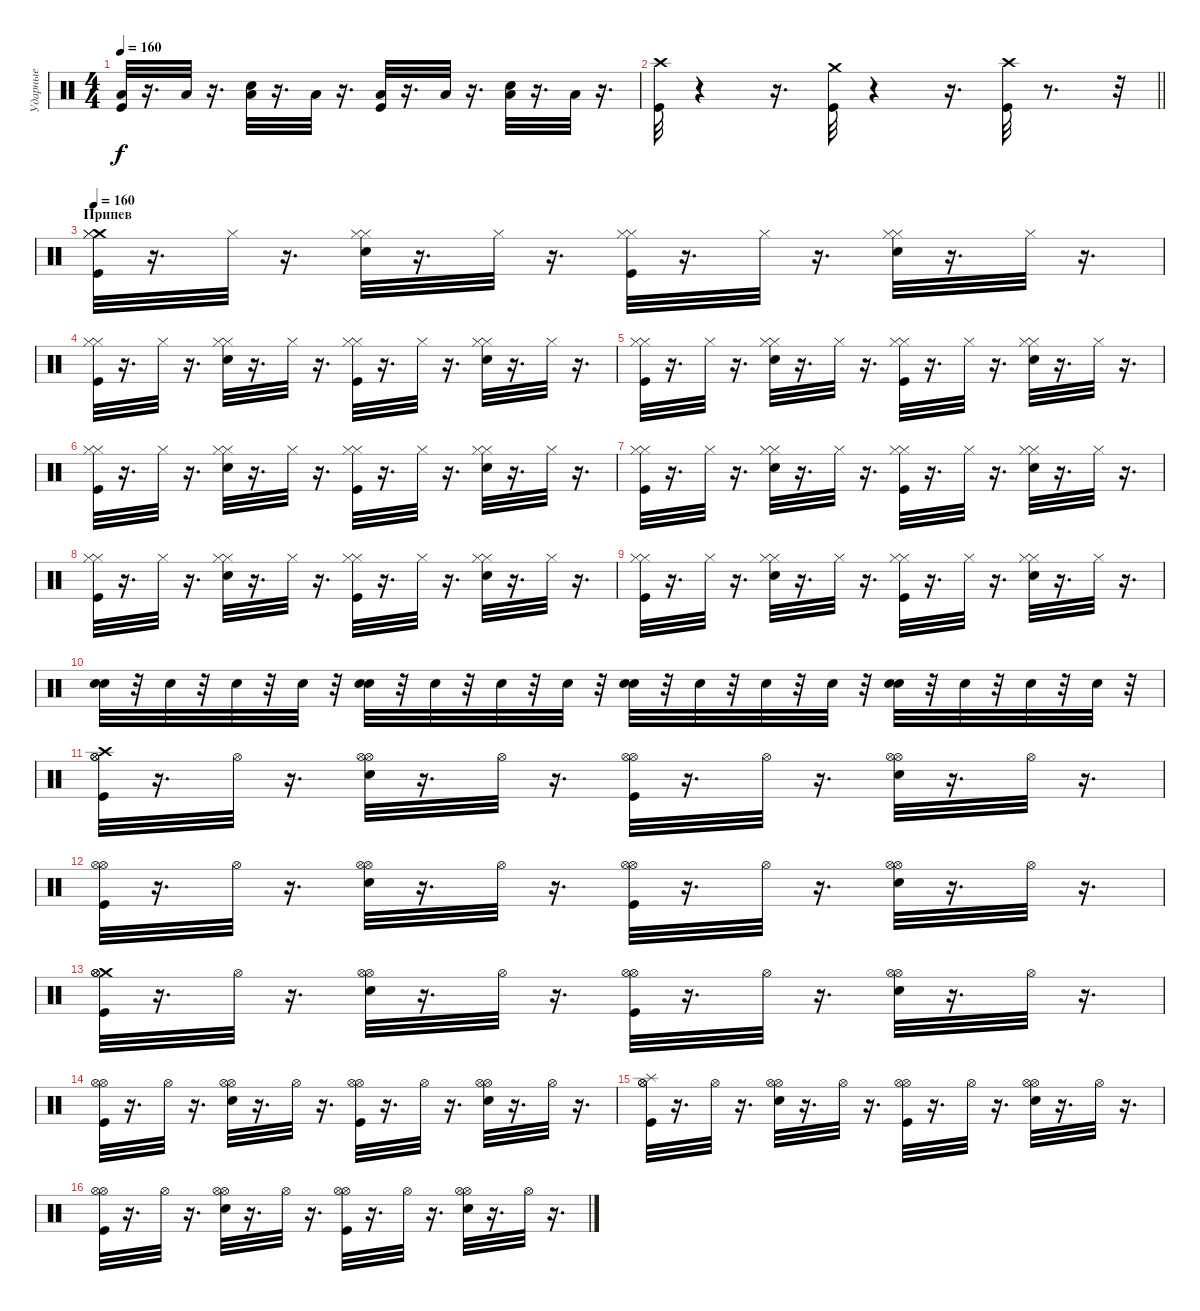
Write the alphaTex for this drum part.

\track ("Ударные" "Ударные") {instrument percussion}
\staff {score}
\articulation defaults
\ts (4 4)
\tempo 160
\clef neutral
\ks c
("Kick (hit)" "Low Floor Tom (hit)").32{dy f} r.16{d} "Low Floor Tom (hit)".32 r.16{d} ("Low Floor Tom (hit)" "Snare (hit) 2").32 r.16{d} "Low Floor Tom (hit)".32 r.16{d} ("Low Floor Tom (hit)" "Kick (hit)").32 r.16{d} "Low Floor Tom (hit)".32 r.16{d} ("Snare (hit) 2" "Low Floor Tom (hit)").32 r.16{d} "Low Floor Tom (hit)".32 r.16{d} |
\barLineRight lightlight
("Crash high (hit)" "Kick (hit)").32 r.4 r.16{d} ("Kick (hit)" "Crash medium (hit)").32 r.4 r.16{d} ("Crash high (hit)" "Kick (hit)").32 r.8{d} r.32 |
\section ("" "Припев")
\tempo 160
("Crash medium (hit)" "Hi-Hat (closed)" "Hi-Hat (closed)" "Kick (hit)").32 r.16{d} "Hi-Hat (closed)".32 r.16{d} ("Hi-Hat (closed)" "Hi-Hat (closed)" "Snare (hit) 2").32 r.16{d} "Hi-Hat (closed)".32 r.16{d} ("Hi-Hat (closed)" "Hi-Hat (closed)" "Kick (hit)").32 r.16{d} "Hi-Hat (closed)".32 r.16{d} ("Hi-Hat (closed)" "Hi-Hat (closed)" "Snare (hit) 2").32 r.16{d} "Hi-Hat (closed)".32 r.16{d} |
("Hi-Hat (closed)" "Hi-Hat (closed)" "Kick (hit)").32 r.16{d} "Hi-Hat (closed)".32 r.16{d} ("Hi-Hat (closed)" "Hi-Hat (closed)" "Snare (hit) 2").32 r.16{d} "Hi-Hat (closed)".32 r.16{d} ("Hi-Hat (closed)" "Hi-Hat (closed)" "Kick (hit)").32 r.16{d} "Hi-Hat (closed)".32 r.16{d} ("Hi-Hat (closed)" "Hi-Hat (closed)" "Snare (hit) 2").32 r.16{d} "Hi-Hat (closed)".32 r.16{d} |
("Hi-Hat (closed)" "Hi-Hat (closed)" "Kick (hit)").32 r.16{d} "Hi-Hat (closed)".32 r.16{d} ("Hi-Hat (closed)" "Hi-Hat (closed)" "Snare (hit) 2").32 r.16{d} "Hi-Hat (closed)".32 r.16{d} ("Hi-Hat (closed)" "Hi-Hat (closed)" "Kick (hit)").32 r.16{d} "Hi-Hat (closed)".32 r.16{d} ("Hi-Hat (closed)" "Hi-Hat (closed)" "Snare (hit) 2").32 r.16{d} "Hi-Hat (closed)".32 r.16{d} |
("Hi-Hat (closed)" "Hi-Hat (closed)" "Kick (hit)").32 r.16{d} "Hi-Hat (closed)".32 r.16{d} ("Hi-Hat (closed)" "Hi-Hat (closed)" "Snare (hit) 2").32 r.16{d} "Hi-Hat (closed)".32 r.16{d} ("Hi-Hat (closed)" "Hi-Hat (closed)" "Kick (hit)").32 r.16{d} "Hi-Hat (closed)".32 r.16{d} ("Hi-Hat (closed)" "Hi-Hat (closed)" "Snare (hit) 2").32 r.16{d} "Hi-Hat (closed)".32 r.16{d} |
("Hi-Hat (closed)" "Hi-Hat (closed)" "Kick (hit)").32 r.16{d} "Hi-Hat (closed)".32 r.16{d} ("Hi-Hat (closed)" "Hi-Hat (closed)" "Snare (hit) 2").32 r.16{d} "Hi-Hat (closed)".32 r.16{d} ("Hi-Hat (closed)" "Hi-Hat (closed)" "Kick (hit)").32 r.16{d} "Hi-Hat (closed)".32 r.16{d} ("Hi-Hat (closed)" "Hi-Hat (closed)" "Snare (hit) 2").32 r.16{d} "Hi-Hat (closed)".32 r.16{d} |
("Hi-Hat (closed)" "Hi-Hat (closed)" "Kick (hit)").32 r.16{d} "Hi-Hat (closed)".32 r.16{d} ("Hi-Hat (closed)" "Hi-Hat (closed)" "Snare (hit) 2").32 r.16{d} "Hi-Hat (closed)".32 r.16{d} ("Hi-Hat (closed)" "Hi-Hat (closed)" "Kick (hit)").32 r.16{d} "Hi-Hat (closed)".32 r.16{d} ("Hi-Hat (closed)" "Hi-Hat (closed)" "Snare (hit) 2").32 r.16{d} "Hi-Hat (closed)".32 r.16{d} |
("Hi-Hat (closed)" "Hi-Hat (closed)" "Kick (hit)").32 r.16{d} "Hi-Hat (closed)".32 r.16{d} ("Hi-Hat (closed)" "Hi-Hat (closed)" "Snare (hit) 2").32 r.16{d} "Hi-Hat (closed)".32 r.16{d} ("Hi-Hat (closed)" "Hi-Hat (closed)" "Kick (hit)").32 r.16{d} "Hi-Hat (closed)".32 r.16{d} ("Hi-Hat (closed)" "Hi-Hat (closed)" "Snare (hit) 2").32 r.16{d} "Hi-Hat (closed)".32 r.16{d} |
("Snare (hit) 2" "Snare (hit) 2").32 r.32 "Snare (hit) 2".32 r.32 "Snare (hit) 2".32 r.32 "Snare (hit) 2".32 r.32 ("Snare (hit) 2" "Snare (hit) 2").32 r.32 "Snare (hit) 2".32 r.32 "Snare (hit) 2".32 r.32 "Snare (hit) 2".32 r.32 ("Snare (hit) 2" "Snare (hit) 2").32 r.32 "Snare (hit) 2".32 r.32 "Snare (hit) 2".32 r.32 "Snare (hit) 2".32 r.32 ("Snare (hit) 2" "Snare (hit) 2").32 r.32 "Snare (hit) 2".32 r.32 "Snare (hit) 2".32 r.32 "Snare (hit) 2".32 r.32 |
("Crash high (hit)" "Kick (hit)" "Hi-Hat (open)" "Hi-Hat (open)").32 r.16{d} "Hi-Hat (open)".32 r.16{d} ("Hi-Hat (open)" "Snare (hit) 2" "Hi-Hat (open)").32 r.16{d} "Hi-Hat (open)".32 r.16{d} ("Hi-Hat (open)" "Kick (hit)" "Hi-Hat (open)").32 r.16{d} "Hi-Hat (open)".32 r.16{d} ("Hi-Hat (open)" "Hi-Hat (open)" "Snare (hit) 2").32 r.16{d} "Hi-Hat (open)".32 r.16{d} |
("Hi-Hat (open)" "Hi-Hat (open)" "Kick (hit)").32 r.16{d} "Hi-Hat (open)".32 r.16{d} ("Snare (hit) 2" "Hi-Hat (open)" "Hi-Hat (open)").32 r.16{d} "Hi-Hat (open)".32 r.16{d} ("Kick (hit)" "Hi-Hat (open)" "Hi-Hat (open)").32 r.16{d} "Hi-Hat (open)".32 r.16{d} ("Hi-Hat (open)" "Hi-Hat (open)" "Snare (hit) 2").32 r.16{d} "Hi-Hat (open)".32 r.16{d} |
("Crash medium (hit)" "Hi-Hat (open)" "Kick (hit)" "Hi-Hat (open)").32 r.16{d} "Hi-Hat (open)".32 r.16{d} ("Hi-Hat (open)" "Snare (hit) 2" "Hi-Hat (open)").32 r.16{d} "Hi-Hat (open)".32 r.16{d} ("Kick (hit)" "Hi-Hat (open)" "Hi-Hat (open)").32 r.16{d} "Hi-Hat (open)".32 r.16{d} ("Hi-Hat (open)" "Hi-Hat (open)" "Snare (hit) 2").32 r.16{d} "Hi-Hat (open)".32 r.16{d} |
("Kick (hit)" "Hi-Hat (open)" "Hi-Hat (open)").32 r.16{d} "Hi-Hat (open)".32 r.16{d} ("Snare (hit) 2" "Hi-Hat (open)" "Hi-Hat (open)").32 r.16{d} "Hi-Hat (open)".32 r.16{d} ("Kick (hit)" "Hi-Hat (open)" "Hi-Hat (open)").32 r.16{d} "Hi-Hat (open)".32 r.16{d} ("Hi-Hat (open)" "Snare (hit) 2" "Hi-Hat (open)").32 r.16{d} "Hi-Hat (open)".32 r.16{d} |
("Splash (hit)" "Hi-Hat (open)" "Kick (hit)" "Hi-Hat (open)").32 r.16{d} "Hi-Hat (open)".32 r.16{d} ("Hi-Hat (open)" "Hi-Hat (open)" "Snare (hit) 2").32 r.16{d} "Hi-Hat (open)".32 r.16{d} ("Hi-Hat (open)" "Hi-Hat (open)" "Kick (hit)").32 r.16{d} "Hi-Hat (open)".32 r.16{d} ("Snare (hit) 2" "Hi-Hat (open)" "Hi-Hat (open)").32 r.16{d} "Hi-Hat (open)".32 r.16{d} |
("Kick (hit)" "Hi-Hat (open)" "Hi-Hat (open)").32 r.16{d} "Hi-Hat (open)".32 r.16{d} ("Snare (hit) 2" "Hi-Hat (open)" "Hi-Hat (open)").32 r.16{d} "Hi-Hat (open)".32 r.16{d} ("Hi-Hat (open)" "Kick (hit)" "Hi-Hat (open)").32 r.16{d} "Hi-Hat (open)".32 r.16{d} ("Hi-Hat (open)" "Snare (hit) 2" "Hi-Hat (open)").32 r.16{d} "Hi-Hat (open)".32 r.16{d}
